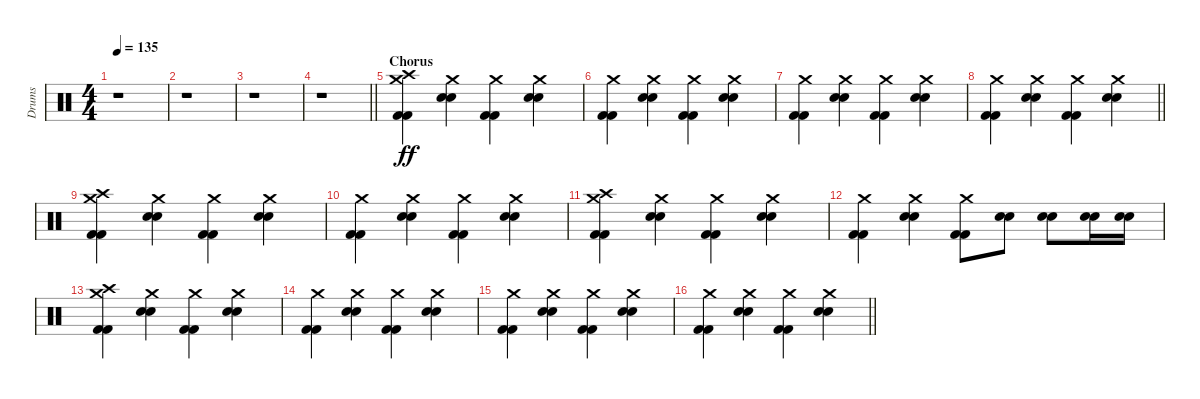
\track ("Drums" "Drums") {instrument percussion}
\staff {score}
\articulation defaults
\ts (4 4)
\tempo 135
\clef neutral
\ks c
r.1{dy f} |
r.1 |
r.1 |
\barLineRight lightlight
r.1 |
\section ("" "Chorus")
("Crash high (hit)" "Crash medium (hit)" "Kick (hit) 2" "Kick (hit) 2").4{dy ff} ("Crash medium (hit)" "Electric Snare (hit)" "Electric Snare (hit)").4 ("Crash medium (hit)" "Kick (hit) 2" "Kick (hit) 2").4 ("Crash medium (hit)" "Electric Snare (hit)" "Electric Snare (hit)").4 |
("Crash medium (hit)" "Kick (hit) 2" "Kick (hit) 2").4 ("Crash medium (hit)" "Electric Snare (hit)" "Electric Snare (hit)").4 ("Crash medium (hit)" "Kick (hit) 2" "Kick (hit) 2").4 ("Crash medium (hit)" "Electric Snare (hit)" "Electric Snare (hit)").4 |
("Crash medium (hit)" "Kick (hit) 2" "Kick (hit) 2").4 ("Crash medium (hit)" "Electric Snare (hit)" "Electric Snare (hit)").4 ("Crash medium (hit)" "Kick (hit) 2" "Kick (hit) 2").4 ("Crash medium (hit)" "Electric Snare (hit)" "Electric Snare (hit)").4 |
\barLineRight lightlight
("Crash medium (hit)" "Kick (hit) 2" "Kick (hit) 2").4 ("Crash medium (hit)" "Electric Snare (hit)" "Electric Snare (hit)").4 ("Crash medium (hit)" "Kick (hit) 2" "Kick (hit) 2").4 ("Crash medium (hit)" "Electric Snare (hit)" "Electric Snare (hit)").4 |
("Crash high (hit)" "Crash medium (hit)" "Kick (hit) 2" "Kick (hit) 2").4 ("Crash medium (hit)" "Electric Snare (hit)" "Electric Snare (hit)").4 ("Crash medium (hit)" "Kick (hit) 2" "Kick (hit) 2").4 ("Crash medium (hit)" "Electric Snare (hit)" "Electric Snare (hit)").4 |
("Crash medium (hit)" "Kick (hit) 2" "Kick (hit) 2").4 ("Crash medium (hit)" "Electric Snare (hit)" "Electric Snare (hit)").4 ("Crash medium (hit)" "Kick (hit) 2" "Kick (hit) 2").4 ("Crash medium (hit)" "Electric Snare (hit)" "Electric Snare (hit)").4 |
("Crash high (hit)" "Crash medium (hit)" "Kick (hit) 2" "Kick (hit) 2").4 ("Crash medium (hit)" "Electric Snare (hit)" "Electric Snare (hit)").4 ("Crash medium (hit)" "Kick (hit) 2" "Kick (hit) 2").4 ("Crash medium (hit)" "Electric Snare (hit)" "Electric Snare (hit)").4 |
("Crash medium (hit)" "Kick (hit) 2" "Kick (hit) 2").4 ("Crash medium (hit)" "Electric Snare (hit)" "Electric Snare (hit)").4 ("Crash medium (hit)" "Kick (hit) 2" "Kick (hit) 2").8 ("Electric Snare (hit)" "Electric Snare (hit)").8 ("Electric Snare (hit)" "Electric Snare (hit)").8 ("Electric Snare (hit)" "Electric Snare (hit)").16 ("Electric Snare (hit)" "Electric Snare (hit)").16 |
("Crash high (hit)" "Crash medium (hit)" "Kick (hit) 2" "Kick (hit) 2").4 ("Crash medium (hit)" "Electric Snare (hit)" "Electric Snare (hit)").4 ("Crash medium (hit)" "Kick (hit) 2" "Kick (hit) 2").4 ("Crash medium (hit)" "Electric Snare (hit)" "Electric Snare (hit)").4 |
("Crash medium (hit)" "Kick (hit) 2" "Kick (hit) 2").4 ("Crash medium (hit)" "Electric Snare (hit)" "Electric Snare (hit)").4 ("Crash medium (hit)" "Kick (hit) 2" "Kick (hit) 2").4 ("Crash medium (hit)" "Electric Snare (hit)" "Electric Snare (hit)").4 |
("Crash medium (hit)" "Kick (hit) 2" "Kick (hit) 2").4 ("Crash medium (hit)" "Electric Snare (hit)" "Electric Snare (hit)").4 ("Crash medium (hit)" "Kick (hit) 2" "Kick (hit) 2").4 ("Crash medium (hit)" "Electric Snare (hit)" "Electric Snare (hit)").4 |
\barLineRight lightlight
("Crash medium (hit)" "Kick (hit) 2" "Kick (hit) 2").4 ("Crash medium (hit)" "Electric Snare (hit)" "Electric Snare (hit)").4 ("Crash medium (hit)" "Kick (hit) 2" "Kick (hit) 2").4 ("Crash medium (hit)" "Electric Snare (hit)" "Electric Snare (hit)").4
